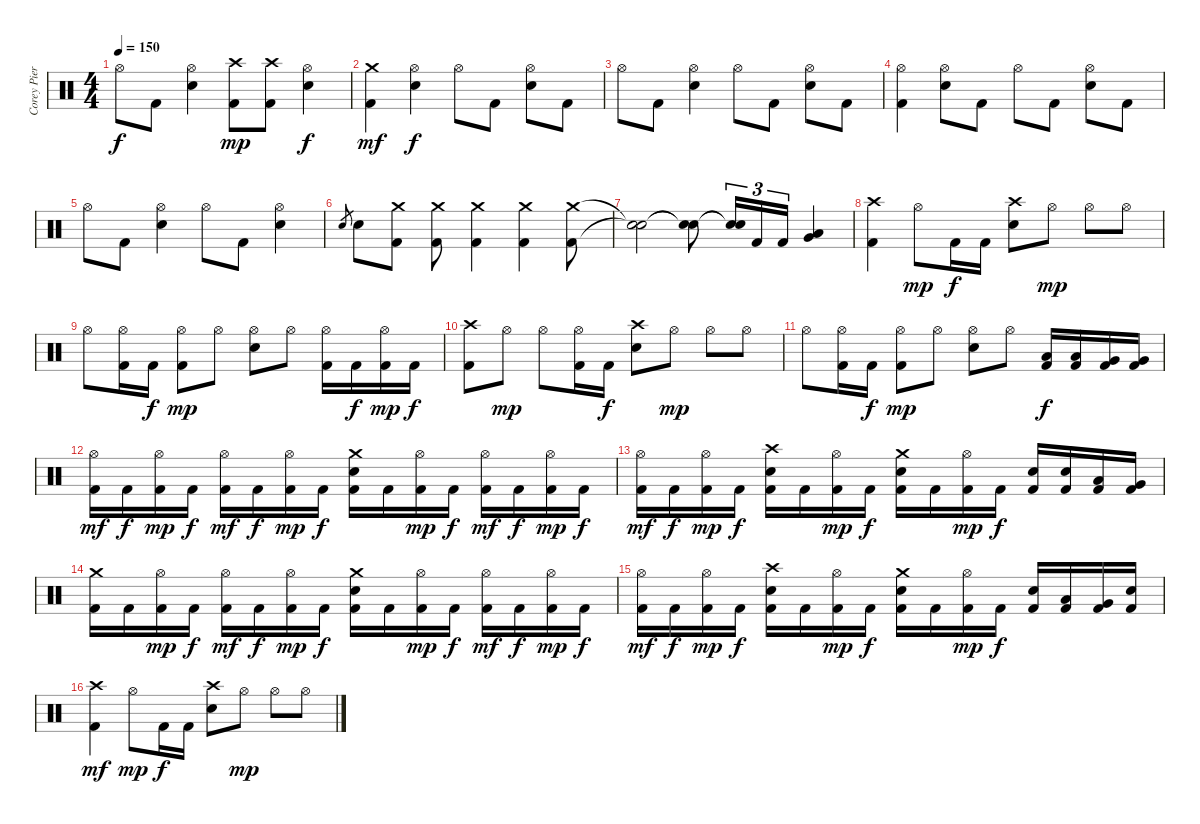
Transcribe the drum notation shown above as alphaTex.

\track ("Corey Pierce" "Corey Pier") {instrument percussion}
\staff {score}
\articulation defaults
\ts (4 4)
\tempo 150
\clef neutral
\ks c "Hi-Hat (open)".8{dy f} "Kick (hit) 2".8
("Hi-Hat (open)" "Electric Snare (hit)").4 ("Crash high (hit)" "Kick (hit) 2").8{dy mp} ("Crash high (hit)" "Kick (hit) 2").8 ("Hi-Hat (open)" "Electric Snare (hit)").4{dy f} |
("Crash medium (hit)" "Kick (hit) 2").4{dy mf} ("Hi-Hat (open)" "Electric Snare (hit)").4{dy f} "Hi-Hat (open)".8 "Kick (hit) 2".8 ("Hi-Hat (open)" "Electric Snare (hit)").8 "Kick (hit) 2".8 |
"Hi-Hat (open)".8 "Kick (hit) 2".8 ("Hi-Hat (open)" "Electric Snare (hit)").4 "Hi-Hat (open)".8 "Kick (hit) 2".8 ("Hi-Hat (open)" "Electric Snare (hit)").8 "Kick (hit) 2".8 |
("Hi-Hat (open)" "Kick (hit) 2").4 ("Hi-Hat (open)" "Electric Snare (hit)").8 "Kick (hit) 2".8 "Hi-Hat (open)".8 "Kick (hit) 2".8 ("Hi-Hat (open)" "Electric Snare (hit)").8 "Kick (hit) 2".8 |
"Hi-Hat (open)".8 "Kick (hit) 2".8 ("Hi-Hat (open)" "Electric Snare (hit)").4 "Hi-Hat (open)".8 "Kick (hit) 2".8 ("Hi-Hat (open)" "Electric Snare (hit)").4 |
"Electric Snare (hit)".8{gr} "Electric Snare (hit)".8 ("Crash medium (hit)" "Kick (hit) 2").8 ("Crash medium (hit)" "Kick (hit) 2").8 ("Crash medium (hit)" "Kick (hit) 2").4 ("Crash medium (hit)" "Kick (hit) 2").4 ("Crash medium (hit)" "Kick (hit) 2").8 |
("Snare (hit)"{t} "Snare (hit)"{t}).2 ("Snare (hit)"{t} "Snare (hit)"{t}).8 ("Snare (hit)"{t} "Snare (hit)"{t}).16{tu (3 2)} "Kick (hit) 2".16{tu (3 2)} "Kick (hit) 2".16{tu (3 2)} ("Very Low Tom (hit)" "Low Floor Tom (hit)").4 |
("Crash high (hit)" "Kick (hit) 2").4 "Hi-Hat (open)".8{dy mp} "Kick (hit) 2".16{dy f} "Kick (hit) 2".16 ("Crash high (hit)" "Electric Snare (hit)").8 "Hi-Hat (open)".8{dy mp} "Hi-Hat (open)".8 "Hi-Hat (open)".8 |
"Hi-Hat (open)".8 ("Hi-Hat (open)" "Kick (hit) 2").16 "Kick (hit) 2".16{dy f} ("Hi-Hat (open)" "Kick (hit) 2").8{dy mp} "Hi-Hat (open)".8 ("Hi-Hat (open)" "Electric Snare (hit)").8 "Hi-Hat (open)".8 ("Hi-Hat (open)" "Kick (hit) 2").16 "Kick (hit) 2".16{dy f} ("Hi-Hat (open)" "Kick (hit) 2").16{dy mp} "Kick (hit) 2".16{dy f} |
("Crash high (hit)" "Kick (hit) 2").8 "Hi-Hat (open)".8{dy mp} "Hi-Hat (open)".8 ("Hi-Hat (open)" "Kick (hit) 2").16 "Kick (hit) 2".16{dy f} ("Crash high (hit)" "Electric Snare (hit)").8 "Hi-Hat (open)".8{dy mp} "Hi-Hat (open)".8 "Hi-Hat (open)".8 |
"Hi-Hat (open)".8 ("Hi-Hat (open)" "Kick (hit) 2").16 "Kick (hit) 2".16{dy f} ("Hi-Hat (open)" "Kick (hit) 2").8{dy mp} "Hi-Hat (open)".8 ("Hi-Hat (open)" "Electric Snare (hit)").8 "Hi-Hat (open)".8 ("Low Tom (hit)" "Kick (hit) 2").16{dy f} ("Low Tom (hit)" "Kick (hit) 2").16 ("Very Low Tom (hit)" "Kick (hit) 2").16 ("Very Low Tom (hit)" "Kick (hit) 2").16 |
("Hi-Hat (open)" "Kick (hit) 2").16{dy mf} "Kick (hit) 2".16{dy f} ("Hi-Hat (open)" "Kick (hit) 2").16{dy mp} "Kick (hit) 2".16{dy f} ("Hi-Hat (open)" "Kick (hit) 2").16{dy mf} "Kick (hit) 2".16{dy f} ("Hi-Hat (open)" "Kick (hit) 2").16{dy mp} "Kick (hit) 2".16{dy f} ("Crash medium (hit)" "Electric Snare (hit)" "Kick (hit) 2").16 "Kick (hit) 2".16 ("Hi-Hat (open)" "Kick (hit) 2").16{dy mp} "Kick (hit) 2".16{dy f} ("Hi-Hat (open)" "Kick (hit) 2").16{dy mf} "Kick (hit) 2".16{dy f} ("Hi-Hat (open)" "Kick (hit) 2").16{dy mp} "Kick (hit) 2".16{dy f} |
("Hi-Hat (open)" "Kick (hit) 2").16{dy mf} "Kick (hit) 2".16{dy f} ("Hi-Hat (open)" "Kick (hit) 2").16{dy mp} "Kick (hit) 2".16{dy f} ("Crash high (hit)" "Electric Snare (hit)" "Kick (hit) 2").16 "Kick (hit) 2".16 ("Hi-Hat (open)" "Kick (hit) 2").16{dy mp} "Kick (hit) 2".16{dy f} ("Crash medium (hit)" "Electric Snare (hit)" "Kick (hit) 2").16 "Kick (hit) 2".16 ("Hi-Hat (open)" "Kick (hit) 2").16{dy mp} "Kick (hit) 2".16{dy f} ("Electric Snare (hit)" "Kick (hit) 2").16 ("Electric Snare (hit)" "Kick (hit) 2").16 ("Low Tom (hit)" "Kick (hit) 2").16 ("Very Low Tom (hit)" "Kick (hit) 2").16 |
("Crash medium (hit)" "Kick (hit) 2").16 "Kick (hit) 2".16 ("Hi-Hat (open)" "Kick (hit) 2").16{dy mp} "Kick (hit) 2".16{dy f} ("Hi-Hat (open)" "Kick (hit) 2").16{dy mf} "Kick (hit) 2".16{dy f} ("Hi-Hat (open)" "Kick (hit) 2").16{dy mp} "Kick (hit) 2".16{dy f} ("Crash medium (hit)" "Electric Snare (hit)" "Kick (hit) 2").16 "Kick (hit) 2".16 ("Hi-Hat (open)" "Kick (hit) 2").16{dy mp} "Kick (hit) 2".16{dy f} ("Hi-Hat (open)" "Kick (hit) 2").16{dy mf} "Kick (hit) 2".16{dy f} ("Hi-Hat (open)" "Kick (hit) 2").16{dy mp} "Kick (hit) 2".16{dy f} |
("Hi-Hat (open)" "Kick (hit) 2").16{dy mf} "Kick (hit) 2".16{dy f} ("Hi-Hat (open)" "Kick (hit) 2").16{dy mp} "Kick (hit) 2".16{dy f} ("Crash high (hit)" "Electric Snare (hit)" "Kick (hit) 2").16 "Kick (hit) 2".16 ("Hi-Hat (open)" "Kick (hit) 2").16{dy mp} "Kick (hit) 2".16{dy f} ("Crash medium (hit)" "Electric Snare (hit)" "Kick (hit) 2").16 "Kick (hit) 2".16 ("Hi-Hat (open)" "Kick (hit) 2").16{dy mp} "Kick (hit) 2".16{dy f} ("Electric Snare (hit)" "Kick (hit) 2").16 ("Low Tom (hit)" "Kick (hit) 2").16 ("Very Low Tom (hit)" "Kick (hit) 2").16 ("Electric Snare (hit)" "Kick (hit) 2").16 |
("Crash high (hit)" "Kick (hit) 2").4{dy mf} "Hi-Hat (open)".8{dy mp} "Kick (hit) 2".16{dy f} "Kick (hit) 2".16 ("Crash high (hit)" "Electric Snare (hit)").8 "Hi-Hat (open)".8{dy mp} "Hi-Hat (open)".8 "Hi-Hat (open)".8
